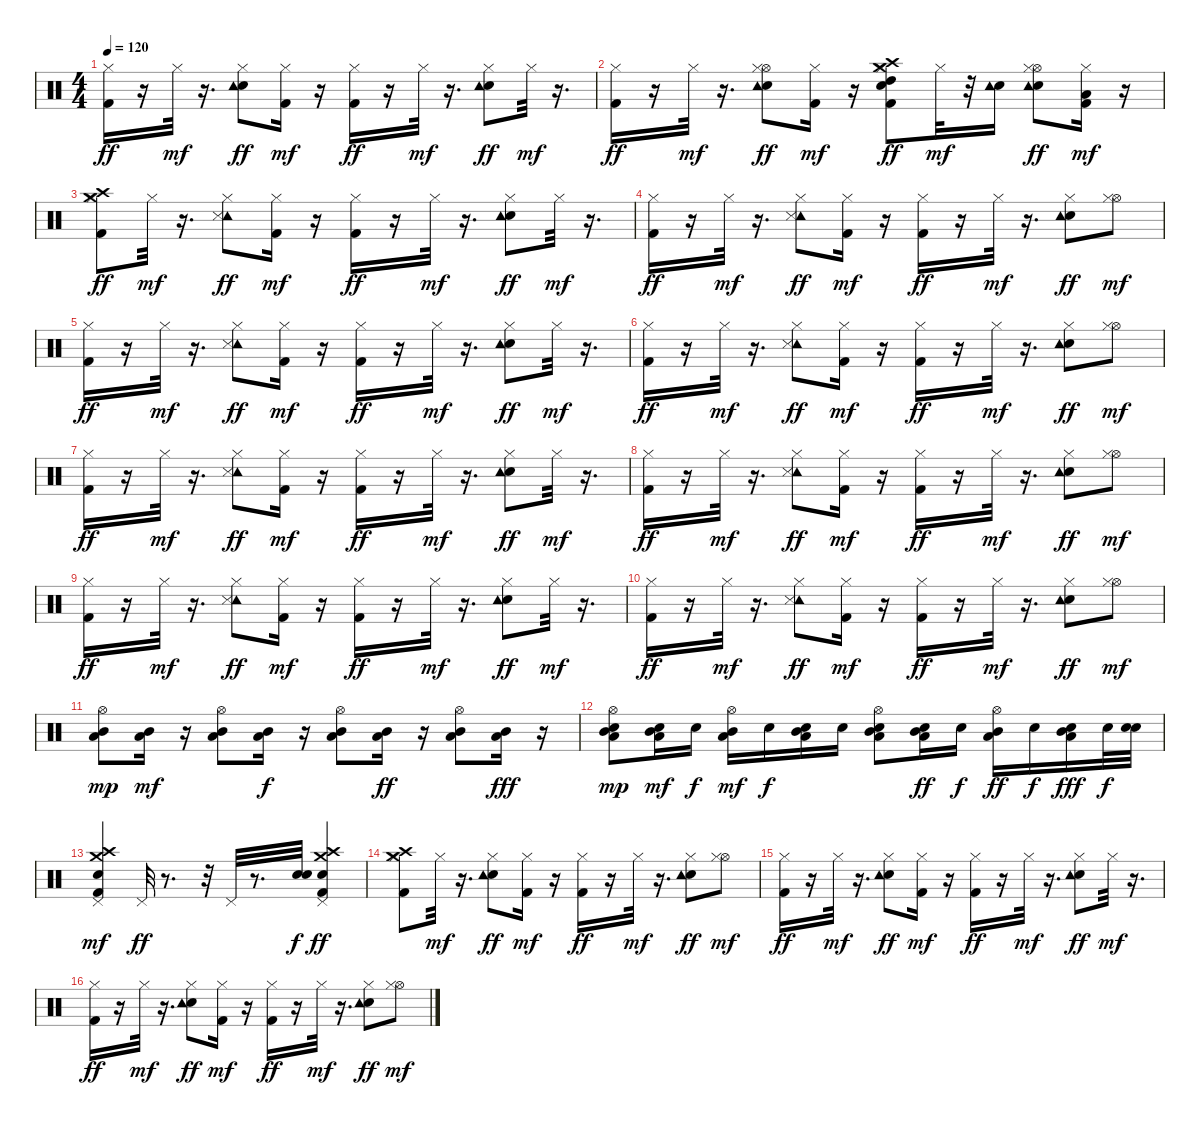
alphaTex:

\track "" {instrument percussion}
\staff {score}
\articulation defaults
\ts (4 4)
\tempo 120
\clef neutral
\ks c
("Hi-Hat (closed)" "Kick (hit) 2").16{dy ff} r.16 "Hi-Hat (closed)".32{dy mf} r.16{d} ("Snare (hit) 2" "Tambourine (hit)" "Hi-Hat (closed)").8{dy ff} ("Hi-Hat (closed)" "Kick (hit) 2").16{dy mf} r.16 ("Hi-Hat (closed)" "Kick (hit) 2").16{dy ff} r.16 "Hi-Hat (closed)".32{dy mf} r.16{d} ("Snare (hit) 2" "Tambourine (hit)" "Hi-Hat (closed)").8{dy ff} "Hi-Hat (closed)".32{dy mf} r.16{d} |
("Hi-Hat (closed)" "Kick (hit) 2").16{dy ff} r.16 "Hi-Hat (closed)".32{dy mf} r.16{d} ("Hi-Hat (open)" "Snare (hit) 2" "Tambourine (hit)" "Hi-Hat (closed)").8{dy ff} ("Hi-Hat (closed)" "Kick (hit) 2").16{dy mf} r.16 ("High Tom (hit)" "Snare (hit) 2" "Crash high (hit)" "Crash medium (hit)" "Hi-Hat (closed)" "Kick (hit) 2").8{dy ff} "Hi-Hat (closed)".32{dy mf} r.32 ("Snare (hit) 2" "Tambourine (hit)").16 ("Snare (hit) 2" "Tambourine (hit)" "Hi-Hat (open)" "Hi-Hat (closed)").8{dy ff} ("Low Floor Tom (hit)" "Hi-Hat (closed)" "Kick (hit) 2").16{dy mf} r.16 |
("Crash high (hit)" "Crash medium (hit)" "Hi-Hat (closed)" "Kick (hit) 2").8{dy ff} "Hi-Hat (closed)".32{dy mf} r.16{d} ("Tambourine (hit)" "Snare (side stick) 3" "Hi-Hat (closed)").8{dy ff} ("Hi-Hat (closed)" "Kick (hit) 2").16{dy mf} r.16 ("Hi-Hat (closed)" "Kick (hit) 2").16{dy ff} r.16 "Hi-Hat (closed)".32{dy mf} r.16{d} ("Snare (hit) 2" "Tambourine (hit)" "Hi-Hat (closed)").8{dy ff} "Hi-Hat (closed)".32{dy mf} r.16{d} |
("Hi-Hat (closed)" "Kick (hit) 2").16{dy ff} r.16 "Hi-Hat (closed)".32{dy mf} r.16{d} ("Tambourine (hit)" "Snare (side stick) 3" "Hi-Hat (closed)").8{dy ff} ("Hi-Hat (closed)" "Kick (hit) 2").16{dy mf} r.16 ("Hi-Hat (closed)" "Kick (hit) 2").16{dy ff} r.16 "Hi-Hat (closed)".32{dy mf} r.16{d} ("Snare (hit) 2" "Tambourine (hit)" "Hi-Hat (closed)").8{dy ff} ("Hi-Hat (open)" "Hi-Hat (closed)").8{dy mf} |
("Hi-Hat (closed)" "Kick (hit) 2").16{dy ff} r.16 "Hi-Hat (closed)".32{dy mf} r.16{d} ("Tambourine (hit)" "Snare (side stick) 3" "Hi-Hat (closed)").8{dy ff} ("Hi-Hat (closed)" "Kick (hit) 2").16{dy mf} r.16 ("Hi-Hat (closed)" "Kick (hit) 2").16{dy ff} r.16 "Hi-Hat (closed)".32{dy mf} r.16{d} ("Snare (hit) 2" "Tambourine (hit)" "Hi-Hat (closed)").8{dy ff} "Hi-Hat (closed)".32{dy mf} r.16{d} |
("Hi-Hat (closed)" "Kick (hit) 2").16{dy ff} r.16 "Hi-Hat (closed)".32{dy mf} r.16{d} ("Tambourine (hit)" "Snare (side stick) 3" "Hi-Hat (closed)").8{dy ff} ("Hi-Hat (closed)" "Kick (hit) 2").16{dy mf} r.16 ("Hi-Hat (closed)" "Kick (hit) 2").16{dy ff} r.16 "Hi-Hat (closed)".32{dy mf} r.16{d} ("Snare (hit) 2" "Tambourine (hit)" "Hi-Hat (closed)").8{dy ff} ("Hi-Hat (open)" "Hi-Hat (closed)").8{dy mf} |
("Hi-Hat (closed)" "Kick (hit) 2").16{dy ff} r.16 "Hi-Hat (closed)".32{dy mf} r.16{d} ("Tambourine (hit)" "Snare (side stick) 3" "Hi-Hat (closed)").8{dy ff} ("Hi-Hat (closed)" "Kick (hit) 2").16{dy mf} r.16 ("Hi-Hat (closed)" "Kick (hit) 2").16{dy ff} r.16 "Hi-Hat (closed)".32{dy mf} r.16{d} ("Snare (hit) 2" "Tambourine (hit)" "Hi-Hat (closed)").8{dy ff} "Hi-Hat (closed)".32{dy mf} r.16{d} |
("Hi-Hat (closed)" "Kick (hit) 2").16{dy ff} r.16 "Hi-Hat (closed)".32{dy mf} r.16{d} ("Tambourine (hit)" "Snare (side stick) 3" "Hi-Hat (closed)").8{dy ff} ("Hi-Hat (closed)" "Kick (hit) 2").16{dy mf} r.16 ("Hi-Hat (closed)" "Kick (hit) 2").16{dy ff} r.16 "Hi-Hat (closed)".32{dy mf} r.16{d} ("Snare (hit) 2" "Tambourine (hit)" "Hi-Hat (closed)").8{dy ff} ("Hi-Hat (open)" "Hi-Hat (closed)").8{dy mf} |
("Hi-Hat (closed)" "Kick (hit) 2").16{dy ff} r.16 "Hi-Hat (closed)".32{dy mf} r.16{d} ("Tambourine (hit)" "Snare (side stick) 3" "Hi-Hat (closed)").8{dy ff} ("Hi-Hat (closed)" "Kick (hit) 2").16{dy mf} r.16 ("Hi-Hat (closed)" "Kick (hit) 2").16{dy ff} r.16 "Hi-Hat (closed)".32{dy mf} r.16{d} ("Snare (hit) 2" "Tambourine (hit)" "Hi-Hat (closed)").8{dy ff} "Hi-Hat (closed)".32{dy mf} r.16{d} |
("Hi-Hat (closed)" "Kick (hit) 2").16{dy ff} r.16 "Hi-Hat (closed)".32{dy mf} r.16{d} ("Tambourine (hit)" "Snare (side stick) 3" "Hi-Hat (closed)").8{dy ff} ("Hi-Hat (closed)" "Kick (hit) 2").16{dy mf} r.16 ("Hi-Hat (closed)" "Kick (hit) 2").16{dy ff} r.16 "Hi-Hat (closed)".32{dy mf} r.16{d} ("Snare (hit) 2" "Tambourine (hit)" "Hi-Hat (closed)").8{dy ff} ("Hi-Hat (open)" "Hi-Hat (closed)").8{dy mf} |
("Hi-Hat (open)" "Low Floor Tom (hit)" "Mid Tom (hit)").8{dy mp} ("Low Floor Tom (hit)" "Mid Tom (hit)").16{dy mf} r.16 ("Hi-Hat (open)" "Mid Tom (hit)" "Low Floor Tom (hit)").8 ("Mid Tom (hit)" "Low Floor Tom (hit)").16{dy f} r.16 ("Hi-Hat (open)" "Mid Tom (hit)" "Low Floor Tom (hit)").8 ("Mid Tom (hit)" "Low Floor Tom (hit)").16{dy ff} r.16 ("Hi-Hat (open)" "Mid Tom (hit)" "Low Floor Tom (hit)").8 ("Mid Tom (hit)" "Low Floor Tom (hit)").16{dy fff} r.16 |
("Low Floor Tom (hit)" "Mid Tom (hit)" "Snare (hit) 2" "Hi-Hat (open)").8{dy mp} ("Low Floor Tom (hit)" "Mid Tom (hit)" "Snare (hit) 2").16{dy mf} "Snare (hit) 2".16{dy f} ("Low Floor Tom (hit)" "Mid Tom (hit)" "Hi-Hat (open)").16{dy mf} "Snare (hit) 2".16{dy f} ("Low Floor Tom (hit)" "Mid Tom (hit)" "Snare (hit) 2").16 "Snare (hit) 2".16 ("Low Floor Tom (hit)" "Mid Tom (hit)" "Snare (hit) 2" "Hi-Hat (open)").8 ("Low Floor Tom (hit)" "Mid Tom (hit)" "Snare (hit) 2").16{dy ff} "Snare (hit) 2".16{dy f} ("Low Floor Tom (hit)" "Mid Tom (hit)" "Hi-Hat (open)").16{dy ff} "Snare (hit) 2".16{dy f} ("Low Floor Tom (hit)" "Mid Tom (hit)" "Snare (hit) 2").16{dy fff} "Snare (hit) 2".32{dy f} ("Snare (hit) 2" "Snare (hit) 2").32 |
("Snare (hit) 2" "Pedal Hi-Hat (hit)" "Crash medium (hit)" "Crash high (hit)" "Kick (hit) 2").4{dy mf} "Pedal Hi-Hat (hit)".32{dy ff} r.8{d} r.32 "Pedal Hi-Hat (hit)".32 r.8{d} ("Snare (hit) 2" "Snare (hit) 2").32{dy f} ("Crash medium (hit)" "Crash high (hit)" "Snare (hit) 2" "Pedal Hi-Hat (hit)" "Kick (hit) 2").4{dy ff} |
("Crash medium (hit)" "Crash high (hit)" "Hi-Hat (closed)" "Kick (hit) 2").8 "Hi-Hat (closed)".32{dy mf} r.16{d} ("Snare (hit) 2" "Tambourine (hit)" "Hi-Hat (closed)").8{dy ff} ("Hi-Hat (closed)" "Kick (hit) 2").16{dy mf} r.16 ("Hi-Hat (closed)" "Kick (hit) 2").16{dy ff} r.16 "Hi-Hat (closed)".32{dy mf} r.16{d} ("Snare (hit) 2" "Tambourine (hit)" "Hi-Hat (closed)").8{dy ff} ("Hi-Hat (open)" "Hi-Hat (closed)").8{dy mf} |
("Hi-Hat (closed)" "Kick (hit) 2").16{dy ff} r.16 "Hi-Hat (closed)".32{dy mf} r.16{d} ("Snare (hit) 2" "Tambourine (hit)" "Hi-Hat (closed)").8{dy ff} ("Hi-Hat (closed)" "Kick (hit) 2").16{dy mf} r.16 ("Hi-Hat (closed)" "Kick (hit) 2").16{dy ff} r.16 "Hi-Hat (closed)".32{dy mf} r.16{d} ("Snare (hit) 2" "Tambourine (hit)" "Hi-Hat (closed)").8{dy ff} "Hi-Hat (closed)".32{dy mf} r.16{d} |
("Hi-Hat (closed)" "Kick (hit) 2").16{dy ff} r.16 "Hi-Hat (closed)".32{dy mf} r.16{d} ("Snare (hit) 2" "Tambourine (hit)" "Hi-Hat (closed)").8{dy ff} ("Hi-Hat (closed)" "Kick (hit) 2").16{dy mf} r.16 ("Hi-Hat (closed)" "Kick (hit) 2").16{dy ff} r.16 "Hi-Hat (closed)".32{dy mf} r.16{d} ("Snare (hit) 2" "Tambourine (hit)" "Hi-Hat (closed)").8{dy ff} ("Hi-Hat (open)" "Hi-Hat (closed)").8{dy mf}
